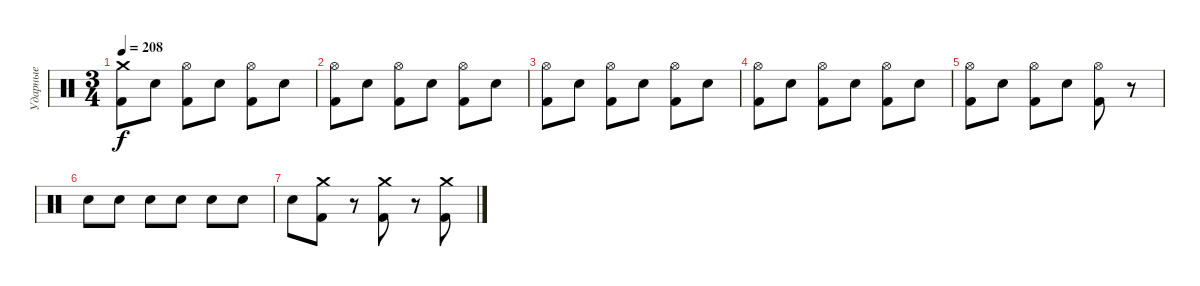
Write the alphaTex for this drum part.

\track ("Ударные" "Ударные") {instrument percussion}
\staff {score}
\articulation defaults
\ts (3 4)
\tempo 208
\clef neutral
\ks c
("Crash medium (hit)" "Kick (hit) 2").8{dy f} "Electric Snare (hit)".8 ("Hi-Hat (open)" "Kick (hit) 2").8 "Electric Snare (hit)".8 ("Hi-Hat (open)" "Kick (hit) 2").8 "Electric Snare (hit)".8 |
("Hi-Hat (open)" "Kick (hit) 2").8 "Electric Snare (hit)".8 ("Hi-Hat (open)" "Kick (hit) 2").8 "Electric Snare (hit)".8 ("Hi-Hat (open)" "Kick (hit) 2").8 "Electric Snare (hit)".8 |
("Hi-Hat (open)" "Kick (hit) 2").8 "Electric Snare (hit)".8 ("Hi-Hat (open)" "Kick (hit) 2").8 "Electric Snare (hit)".8 ("Hi-Hat (open)" "Kick (hit) 2").8 "Electric Snare (hit)".8 |
("Hi-Hat (open)" "Kick (hit) 2").8 "Electric Snare (hit)".8 ("Hi-Hat (open)" "Kick (hit) 2").8 "Electric Snare (hit)".8 ("Hi-Hat (open)" "Kick (hit) 2").8 "Electric Snare (hit)".8 |
("Hi-Hat (open)" "Kick (hit) 2").8 "Electric Snare (hit)".8 ("Hi-Hat (open)" "Kick (hit) 2").8 "Electric Snare (hit)".8 ("Hi-Hat (open)" "Kick (hit) 2").8 r.8 |
"Electric Snare (hit)".8 "Electric Snare (hit)".8 "Electric Snare (hit)".8 "Electric Snare (hit)".8 "Electric Snare (hit)".8 "Electric Snare (hit)".8 |
"Electric Snare (hit)".8 ("Crash medium (hit)" "Kick (hit) 2").8 r.8 ("Crash medium (hit)" "Kick (hit) 2").8 r.8 ("Crash medium (hit)" "Kick (hit) 2").8
